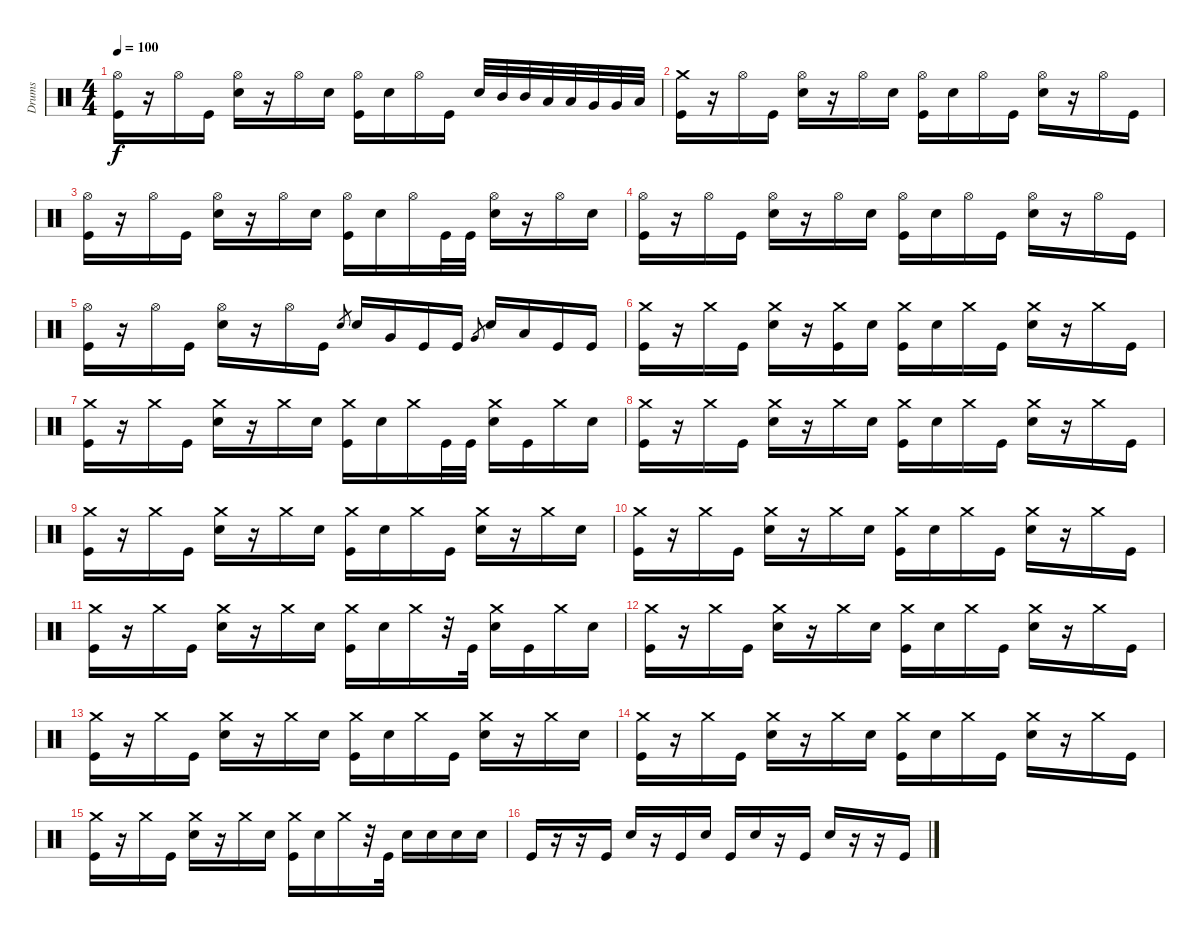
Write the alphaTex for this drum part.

\track ("Drums" "Drums") {instrument percussion}
\staff {score}
\articulation defaults
\ts (4 4)
\tempo 100
\clef neutral
\ks c
("Hi-Hat (open)" "Kick (hit)").16{dy f} r.16 "Hi-Hat (open)".16 "Kick (hit)".16 ("Hi-Hat (open)" "Electric Snare (hit)").16 r.16 "Hi-Hat (open)".16 "Electric Snare (hit)".16 ("Hi-Hat (open)" "Kick (hit)").16 "Electric Snare (hit)".16 "Hi-Hat (open)".16 "Kick (hit)".16 "Electric Snare (hit)".32 "Mid Tom (hit)".32 "Mid Tom (hit)".32 "Low Tom (hit)".32 "Low Tom (hit)".32 "Very Low Tom (hit)".32 "Very Low Tom (hit)".32 "Low Floor Tom (hit)".32 |
("Crash medium (hit)" "Kick (hit)").16 r.16 "Hi-Hat (open)".16 "Kick (hit)".16 ("Hi-Hat (open)" "Electric Snare (hit)").16 r.16 "Hi-Hat (open)".16 "Electric Snare (hit)".16 ("Hi-Hat (open)" "Kick (hit)").16 "Electric Snare (hit)".16 "Hi-Hat (open)".16 "Kick (hit)".16 ("Hi-Hat (open)" "Electric Snare (hit)").16 r.16 "Hi-Hat (open)".16 "Kick (hit)".16 |
("Hi-Hat (open)" "Kick (hit)").16 r.16 "Hi-Hat (open)".16 "Kick (hit)".16 ("Hi-Hat (open)" "Electric Snare (hit)").16 r.16 "Hi-Hat (open)".16 "Electric Snare (hit)".16 ("Hi-Hat (open)" "Kick (hit)").16 "Electric Snare (hit)".16 "Hi-Hat (open)".16 "Kick (hit)".32 "Kick (hit)".32 ("Hi-Hat (open)" "Electric Snare (hit)").16 r.16 "Hi-Hat (open)".16 "Electric Snare (hit)".16 |
("Hi-Hat (open)" "Kick (hit)").16 r.16 "Hi-Hat (open)".16 "Kick (hit)".16 ("Hi-Hat (open)" "Electric Snare (hit)").16 r.16 "Hi-Hat (open)".16 "Electric Snare (hit)".16 ("Hi-Hat (open)" "Kick (hit)").16 "Electric Snare (hit)".16 "Hi-Hat (open)".16 "Kick (hit)".16 ("Hi-Hat (open)" "Electric Snare (hit)").16 r.16 "Hi-Hat (open)".16 "Kick (hit)".16 |
("Hi-Hat (open)" "Kick (hit)").16 r.16 "Hi-Hat (open)".16 "Kick (hit)".16 ("Hi-Hat (open)" "Electric Snare (hit)").16 r.16 "Hi-Hat (open)".16 "Kick (hit)".16 "Electric Snare (hit)".8{gr} "Electric Snare (hit)".16 "Very Low Tom (hit)".16 "Kick (hit)".16 "Kick (hit)".16 "Very Low Tom (hit)".8{gr} "Electric Snare (hit)".16 "Low Floor Tom (hit)".16 "Kick (hit)".16 "Kick (hit)".16 |
("Crash medium (hit)" "Kick (hit)").16 r.16 "Crash medium (hit)".16 "Kick (hit)".16 ("Crash medium (hit)" "Electric Snare (hit)").16 r.16 ("Crash medium (hit)" "Kick (hit)").16 "Electric Snare (hit)".16 ("Crash medium (hit)" "Kick (hit)").16 "Electric Snare (hit)".16 "Crash medium (hit)".16 "Kick (hit)".16 ("Crash medium (hit)" "Electric Snare (hit)").16 r.16 "Crash medium (hit)".16 "Kick (hit)".16 |
("Crash medium (hit)" "Kick (hit)").16 r.16 "Crash medium (hit)".16 "Kick (hit)".16 ("Crash medium (hit)" "Electric Snare (hit)").16 r.16 "Crash medium (hit)".16 "Electric Snare (hit)".16 ("Crash medium (hit)" "Kick (hit)").16 "Electric Snare (hit)".16 "Crash medium (hit)".16 "Kick (hit)".32 "Kick (hit)".32 ("Crash medium (hit)" "Electric Snare (hit)").16 "Kick (hit)".16 "Crash medium (hit)".16 "Electric Snare (hit)".16 |
("Crash medium (hit)" "Kick (hit)").16 r.16 "Crash medium (hit)".16 "Kick (hit)".16 ("Crash medium (hit)" "Electric Snare (hit)").16 r.16 "Crash medium (hit)".16 "Electric Snare (hit)".16 ("Crash medium (hit)" "Kick (hit)").16 "Electric Snare (hit)".16 "Crash medium (hit)".16 "Kick (hit)".16 ("Crash medium (hit)" "Electric Snare (hit)").16 r.16 "Crash medium (hit)".16 "Kick (hit)".16 |
("Crash medium (hit)" "Kick (hit)").16 r.16 "Crash medium (hit)".16 "Kick (hit)".16 ("Crash medium (hit)" "Electric Snare (hit)").16 r.16 "Crash medium (hit)".16 "Electric Snare (hit)".16 ("Crash medium (hit)" "Kick (hit)").16 "Electric Snare (hit)".16 "Crash medium (hit)".16 "Kick (hit)".16 ("Crash medium (hit)" "Electric Snare (hit)").16 r.16 "Crash medium (hit)".16 "Electric Snare (hit)".16 |
("Crash medium (hit)" "Kick (hit)").16 r.16 "Crash medium (hit)".16 "Kick (hit)".16 ("Crash medium (hit)" "Electric Snare (hit)").16 r.16 "Crash medium (hit)".16 "Electric Snare (hit)".16 ("Crash medium (hit)" "Kick (hit)").16 "Electric Snare (hit)".16 "Crash medium (hit)".16 "Kick (hit)".16 ("Crash medium (hit)" "Electric Snare (hit)").16 r.16 "Crash medium (hit)".16 "Kick (hit)".16 |
("Crash medium (hit)" "Kick (hit)").16 r.16 "Crash medium (hit)".16 "Kick (hit)".16 ("Crash medium (hit)" "Electric Snare (hit)").16 r.16 "Crash medium (hit)".16 "Electric Snare (hit)".16 ("Crash medium (hit)" "Kick (hit)").16 "Electric Snare (hit)".16 "Crash medium (hit)".16 r.32 "Kick (hit)".32 ("Crash medium (hit)" "Electric Snare (hit)").16 "Kick (hit)".16 "Crash medium (hit)".16 "Electric Snare (hit)".16 |
("Crash medium (hit)" "Kick (hit)").16 r.16 "Crash medium (hit)".16 "Kick (hit)".16 ("Crash medium (hit)" "Electric Snare (hit)").16 r.16 "Crash medium (hit)".16 "Electric Snare (hit)".16 ("Crash medium (hit)" "Kick (hit)").16 "Electric Snare (hit)".16 "Crash medium (hit)".16 "Kick (hit)".16 ("Crash medium (hit)" "Electric Snare (hit)").16 r.16 "Crash medium (hit)".16 "Kick (hit)".16 |
("Crash medium (hit)" "Kick (hit)").16 r.16 "Crash medium (hit)".16 "Kick (hit)".16 ("Crash medium (hit)" "Electric Snare (hit)").16 r.16 "Crash medium (hit)".16 "Electric Snare (hit)".16 ("Crash medium (hit)" "Kick (hit)").16 "Electric Snare (hit)".16 "Crash medium (hit)".16 "Kick (hit)".16 ("Crash medium (hit)" "Electric Snare (hit)").16 r.16 "Crash medium (hit)".16 "Electric Snare (hit)".16 |
("Crash medium (hit)" "Kick (hit)").16 r.16 "Crash medium (hit)".16 "Kick (hit)".16 ("Crash medium (hit)" "Electric Snare (hit)").16 r.16 "Crash medium (hit)".16 "Electric Snare (hit)".16 ("Crash medium (hit)" "Kick (hit)").16 "Electric Snare (hit)".16 "Crash medium (hit)".16 "Kick (hit)".16 ("Crash medium (hit)" "Electric Snare (hit)").16 r.16 "Crash medium (hit)".16 "Kick (hit)".16 |
("Crash medium (hit)" "Kick (hit)").16 r.16 "Crash medium (hit)".16 "Kick (hit)".16 ("Crash medium (hit)" "Electric Snare (hit)").16 r.16 "Crash medium (hit)".16 "Electric Snare (hit)".16 ("Crash medium (hit)" "Kick (hit)").16 "Electric Snare (hit)".16 "Crash medium (hit)".16 r.32 "Kick (hit)".32 "Electric Snare (hit)".16 "Electric Snare (hit)".16 "Electric Snare (hit)".16 "Electric Snare (hit)".16 |
"Kick (hit)".16 r.16 r.16 "Kick (hit)".16 "Electric Snare (hit)".16 r.16 "Kick (hit)".16 "Electric Snare (hit)".16 "Kick (hit)".16 "Electric Snare (hit)".16 r.16 "Kick (hit)".16 "Electric Snare (hit)".16 r.16 r.16 "Kick (hit)".16
